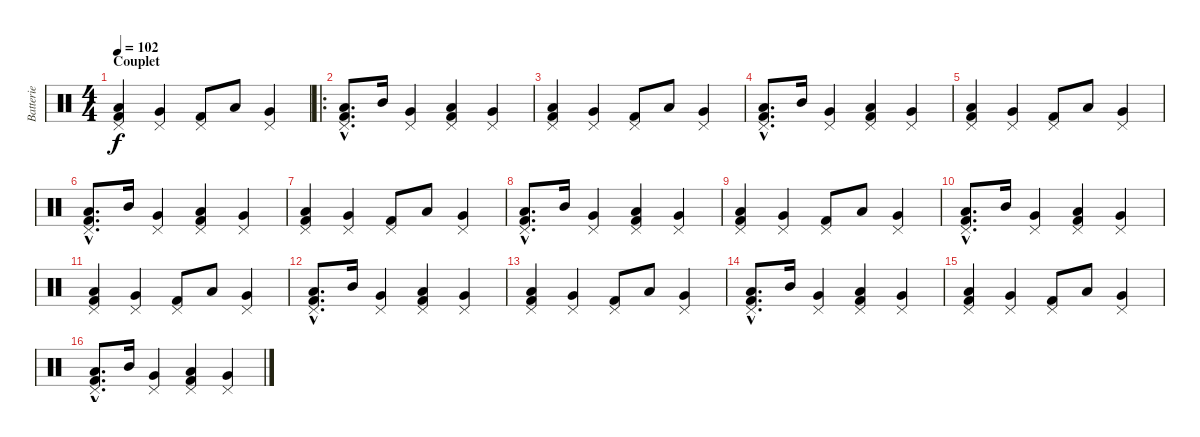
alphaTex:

\track ("Batterie" "Batterie") {instrument percussion}
\staff {score}
\articulation defaults
\ts (4 4)
\section ("" "Couplet")
\tempo 102
\clef neutral
\ks c
("Pedal Hi-Hat (hit)" "Low Tom (hit)" "Kick (hit) 2").4{dy f} ("Pedal Hi-Hat (hit)" "Very Low Tom (hit)").4 ("Pedal Hi-Hat (hit)" "Kick (hit) 2").8 "Low Floor Tom (hit)".8 ("Pedal Hi-Hat (hit)" "Very Low Tom (hit)").4 |
\ro
("Pedal Hi-Hat (hit)"{hac} "Low Tom (hit)"{hac} "Kick (hit) 2"{hac}).8{d} "Mid Tom (hit)".16 ("Pedal Hi-Hat (hit)" "Very Low Tom (hit)").4 ("Pedal Hi-Hat (hit)" "Low Floor Tom (hit)" "Kick (hit) 2").4 ("Pedal Hi-Hat (hit)" "Very Low Tom (hit)").4 |
("Pedal Hi-Hat (hit)" "Low Tom (hit)" "Kick (hit) 2").4 ("Pedal Hi-Hat (hit)" "Very Low Tom (hit)").4 ("Pedal Hi-Hat (hit)" "Kick (hit) 2").8 "Low Floor Tom (hit)".8 ("Pedal Hi-Hat (hit)" "Very Low Tom (hit)").4 |
("Pedal Hi-Hat (hit)"{hac} "Low Tom (hit)"{hac} "Kick (hit) 2"{hac}).8{d} "Mid Tom (hit)".16 ("Pedal Hi-Hat (hit)" "Very Low Tom (hit)").4 ("Pedal Hi-Hat (hit)" "Low Floor Tom (hit)" "Kick (hit) 2").4 ("Pedal Hi-Hat (hit)" "Very Low Tom (hit)").4 |
("Pedal Hi-Hat (hit)" "Low Tom (hit)" "Kick (hit) 2").4 ("Pedal Hi-Hat (hit)" "Very Low Tom (hit)").4 ("Pedal Hi-Hat (hit)" "Kick (hit) 2").8 "Low Floor Tom (hit)".8 ("Pedal Hi-Hat (hit)" "Very Low Tom (hit)").4 |
("Pedal Hi-Hat (hit)"{hac} "Low Tom (hit)"{hac} "Kick (hit) 2"{hac}).8{d} "Mid Tom (hit)".16 ("Pedal Hi-Hat (hit)" "Very Low Tom (hit)").4 ("Pedal Hi-Hat (hit)" "Low Floor Tom (hit)" "Kick (hit) 2").4 ("Pedal Hi-Hat (hit)" "Very Low Tom (hit)").4 |
("Pedal Hi-Hat (hit)" "Low Tom (hit)" "Kick (hit) 2").4 ("Pedal Hi-Hat (hit)" "Very Low Tom (hit)").4 ("Pedal Hi-Hat (hit)" "Kick (hit) 2").8 "Low Floor Tom (hit)".8 ("Pedal Hi-Hat (hit)" "Very Low Tom (hit)").4 |
("Pedal Hi-Hat (hit)"{hac} "Low Tom (hit)"{hac} "Kick (hit) 2"{hac}).8{d} "Mid Tom (hit)".16 ("Pedal Hi-Hat (hit)" "Very Low Tom (hit)").4 ("Pedal Hi-Hat (hit)" "Low Floor Tom (hit)" "Kick (hit) 2").4 ("Pedal Hi-Hat (hit)" "Very Low Tom (hit)").4 |
("Pedal Hi-Hat (hit)" "Low Tom (hit)" "Kick (hit) 2").4 ("Pedal Hi-Hat (hit)" "Very Low Tom (hit)").4 ("Pedal Hi-Hat (hit)" "Kick (hit) 2").8 "Low Floor Tom (hit)".8 ("Pedal Hi-Hat (hit)" "Very Low Tom (hit)").4 |
("Pedal Hi-Hat (hit)"{hac} "Low Tom (hit)"{hac} "Kick (hit) 2"{hac}).8{d} "Mid Tom (hit)".16 ("Pedal Hi-Hat (hit)" "Very Low Tom (hit)").4 ("Pedal Hi-Hat (hit)" "Low Floor Tom (hit)" "Kick (hit) 2").4 ("Pedal Hi-Hat (hit)" "Very Low Tom (hit)").4 |
("Pedal Hi-Hat (hit)" "Low Tom (hit)" "Kick (hit) 2").4 ("Pedal Hi-Hat (hit)" "Very Low Tom (hit)").4 ("Pedal Hi-Hat (hit)" "Kick (hit) 2").8 "Low Floor Tom (hit)".8 ("Pedal Hi-Hat (hit)" "Very Low Tom (hit)").4 |
("Pedal Hi-Hat (hit)"{hac} "Low Tom (hit)"{hac} "Kick (hit) 2"{hac}).8{d} "Mid Tom (hit)".16 ("Pedal Hi-Hat (hit)" "Very Low Tom (hit)").4 ("Pedal Hi-Hat (hit)" "Low Floor Tom (hit)" "Kick (hit) 2").4 ("Pedal Hi-Hat (hit)" "Very Low Tom (hit)").4 |
("Pedal Hi-Hat (hit)" "Low Tom (hit)" "Kick (hit) 2").4 ("Pedal Hi-Hat (hit)" "Very Low Tom (hit)").4 ("Pedal Hi-Hat (hit)" "Kick (hit) 2").8 "Low Floor Tom (hit)".8 ("Pedal Hi-Hat (hit)" "Very Low Tom (hit)").4 |
("Pedal Hi-Hat (hit)"{hac} "Low Tom (hit)"{hac} "Kick (hit) 2"{hac}).8{d} "Mid Tom (hit)".16 ("Pedal Hi-Hat (hit)" "Very Low Tom (hit)").4 ("Pedal Hi-Hat (hit)" "Low Floor Tom (hit)" "Kick (hit) 2").4 ("Pedal Hi-Hat (hit)" "Very Low Tom (hit)").4 |
("Pedal Hi-Hat (hit)" "Low Tom (hit)" "Kick (hit) 2").4 ("Pedal Hi-Hat (hit)" "Very Low Tom (hit)").4 ("Pedal Hi-Hat (hit)" "Kick (hit) 2").8 "Low Floor Tom (hit)".8 ("Pedal Hi-Hat (hit)" "Very Low Tom (hit)").4 |
("Pedal Hi-Hat (hit)"{hac} "Low Tom (hit)"{hac} "Kick (hit) 2"{hac}).8{d} "Mid Tom (hit)".16 ("Pedal Hi-Hat (hit)" "Very Low Tom (hit)").4 ("Pedal Hi-Hat (hit)" "Low Floor Tom (hit)" "Kick (hit) 2").4 ("Pedal Hi-Hat (hit)" "Very Low Tom (hit)").4
